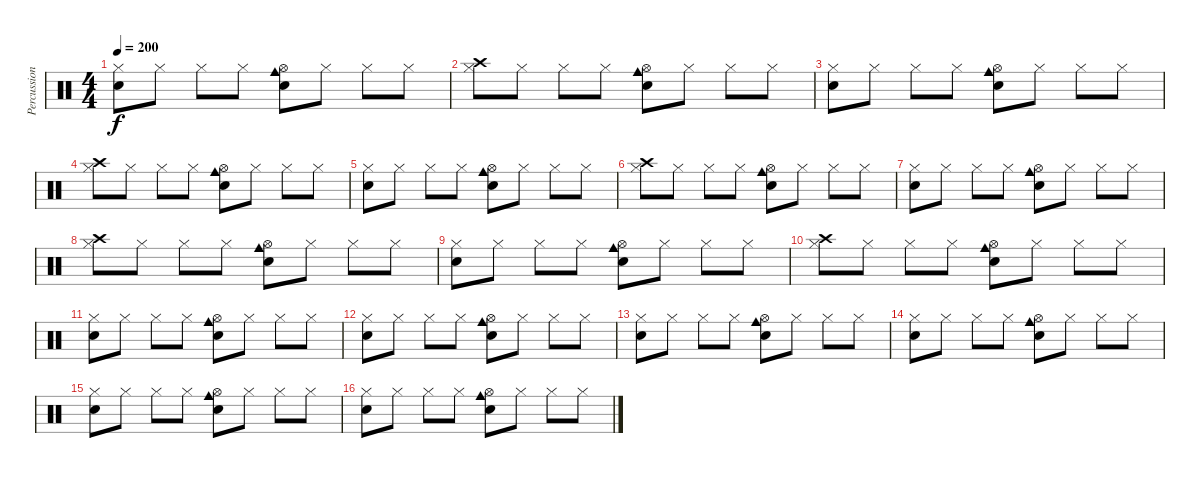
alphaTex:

\track ("Percussion" "Percussion") {instrument percussion}
\staff {score}
\articulation defaults
\ts (4 4)
\tempo 200
\clef neutral
\ks c
("Hi-Hat (closed)" "Electric Snare (hit)").8{dy f} "Hi-Hat (closed)".8 "Hi-Hat (closed)".8 "Hi-Hat (closed)".8 ("Cowbell medium (hit)" "Snare (hit) 2" "Hi-Hat (open)").8 "Hi-Hat (closed)".8 "Hi-Hat (closed)".8 "Hi-Hat (closed)".8 |
("Hi-Hat (closed)" "Crash high (hit)").8 "Hi-Hat (closed)".8 "Hi-Hat (closed)".8 "Hi-Hat (closed)".8 ("Cowbell medium (hit)" "Snare (hit) 2" "Hi-Hat (open)").8 "Hi-Hat (closed)".8 "Hi-Hat (closed)".8 "Hi-Hat (closed)".8 |
("Hi-Hat (closed)" "Electric Snare (hit)").8 "Hi-Hat (closed)".8 "Hi-Hat (closed)".8 "Hi-Hat (closed)".8 ("Cowbell medium (hit)" "Snare (hit) 2" "Hi-Hat (open)").8 "Hi-Hat (closed)".8 "Hi-Hat (closed)".8 "Hi-Hat (closed)".8 |
("Hi-Hat (closed)" "Crash high (hit)").8 "Hi-Hat (closed)".8 "Hi-Hat (closed)".8 "Hi-Hat (closed)".8 ("Cowbell medium (hit)" "Snare (hit) 2" "Hi-Hat (open)").8 "Hi-Hat (closed)".8 "Hi-Hat (closed)".8 "Hi-Hat (closed)".8 |
("Hi-Hat (closed)" "Electric Snare (hit)").8 "Hi-Hat (closed)".8 "Hi-Hat (closed)".8 "Hi-Hat (closed)".8 ("Cowbell medium (hit)" "Snare (hit) 2" "Hi-Hat (open)").8 "Hi-Hat (closed)".8 "Hi-Hat (closed)".8 "Hi-Hat (closed)".8 |
("Hi-Hat (closed)" "Crash high (hit)").8 "Hi-Hat (closed)".8 "Hi-Hat (closed)".8 "Hi-Hat (closed)".8 ("Cowbell medium (hit)" "Snare (hit) 2" "Hi-Hat (open)").8 "Hi-Hat (closed)".8 "Hi-Hat (closed)".8 "Hi-Hat (closed)".8 |
("Hi-Hat (closed)" "Electric Snare (hit)").8 "Hi-Hat (closed)".8 "Hi-Hat (closed)".8 "Hi-Hat (closed)".8 ("Cowbell medium (hit)" "Snare (hit) 2" "Hi-Hat (open)").8 "Hi-Hat (closed)".8 "Hi-Hat (closed)".8 "Hi-Hat (closed)".8 |
("Hi-Hat (closed)" "Crash high (hit)").8 "Hi-Hat (closed)".8 "Hi-Hat (closed)".8 "Hi-Hat (closed)".8 ("Cowbell medium (hit)" "Snare (hit) 2" "Hi-Hat (open)").8 "Hi-Hat (closed)".8 "Hi-Hat (closed)".8 "Hi-Hat (closed)".8 |
("Hi-Hat (closed)" "Electric Snare (hit)").8 "Hi-Hat (closed)".8 "Hi-Hat (closed)".8 "Hi-Hat (closed)".8 ("Cowbell medium (hit)" "Snare (hit) 2" "Hi-Hat (open)").8 "Hi-Hat (closed)".8 "Hi-Hat (closed)".8 "Hi-Hat (closed)".8 |
("Hi-Hat (closed)" "Crash high (hit)").8 "Hi-Hat (closed)".8 "Hi-Hat (closed)".8 "Hi-Hat (closed)".8 ("Cowbell medium (hit)" "Snare (hit) 2" "Hi-Hat (open)").8 "Hi-Hat (closed)".8 "Hi-Hat (closed)".8 "Hi-Hat (closed)".8 |
("Hi-Hat (closed)" "Electric Snare (hit)").8 "Hi-Hat (closed)".8 "Hi-Hat (closed)".8 "Hi-Hat (closed)".8 ("Cowbell medium (hit)" "Snare (hit) 2" "Hi-Hat (open)").8 "Hi-Hat (closed)".8 "Hi-Hat (closed)".8 "Hi-Hat (closed)".8 |
("Hi-Hat (closed)" "Electric Snare (hit)").8 "Hi-Hat (closed)".8 "Hi-Hat (closed)".8 "Hi-Hat (closed)".8 ("Cowbell medium (hit)" "Snare (hit) 2" "Hi-Hat (open)").8 "Hi-Hat (closed)".8 "Hi-Hat (closed)".8 "Hi-Hat (closed)".8 |
("Hi-Hat (closed)" "Electric Snare (hit)").8 "Hi-Hat (closed)".8 "Hi-Hat (closed)".8 "Hi-Hat (closed)".8 ("Cowbell medium (hit)" "Snare (hit) 2" "Hi-Hat (open)").8 "Hi-Hat (closed)".8 "Hi-Hat (closed)".8 "Hi-Hat (closed)".8 |
("Hi-Hat (closed)" "Electric Snare (hit)").8 "Hi-Hat (closed)".8 "Hi-Hat (closed)".8 "Hi-Hat (closed)".8 ("Cowbell medium (hit)" "Snare (hit) 2" "Hi-Hat (open)").8 "Hi-Hat (closed)".8 "Hi-Hat (closed)".8 "Hi-Hat (closed)".8 |
("Hi-Hat (closed)" "Electric Snare (hit)").8 "Hi-Hat (closed)".8 "Hi-Hat (closed)".8 "Hi-Hat (closed)".8 ("Cowbell medium (hit)" "Snare (hit) 2" "Hi-Hat (open)").8 "Hi-Hat (closed)".8 "Hi-Hat (closed)".8 "Hi-Hat (closed)".8 |
("Hi-Hat (closed)" "Electric Snare (hit)").8 "Hi-Hat (closed)".8 "Hi-Hat (closed)".8 "Hi-Hat (closed)".8 ("Cowbell medium (hit)" "Snare (hit) 2" "Hi-Hat (open)").8 "Hi-Hat (closed)".8 "Hi-Hat (closed)".8 "Hi-Hat (closed)".8
